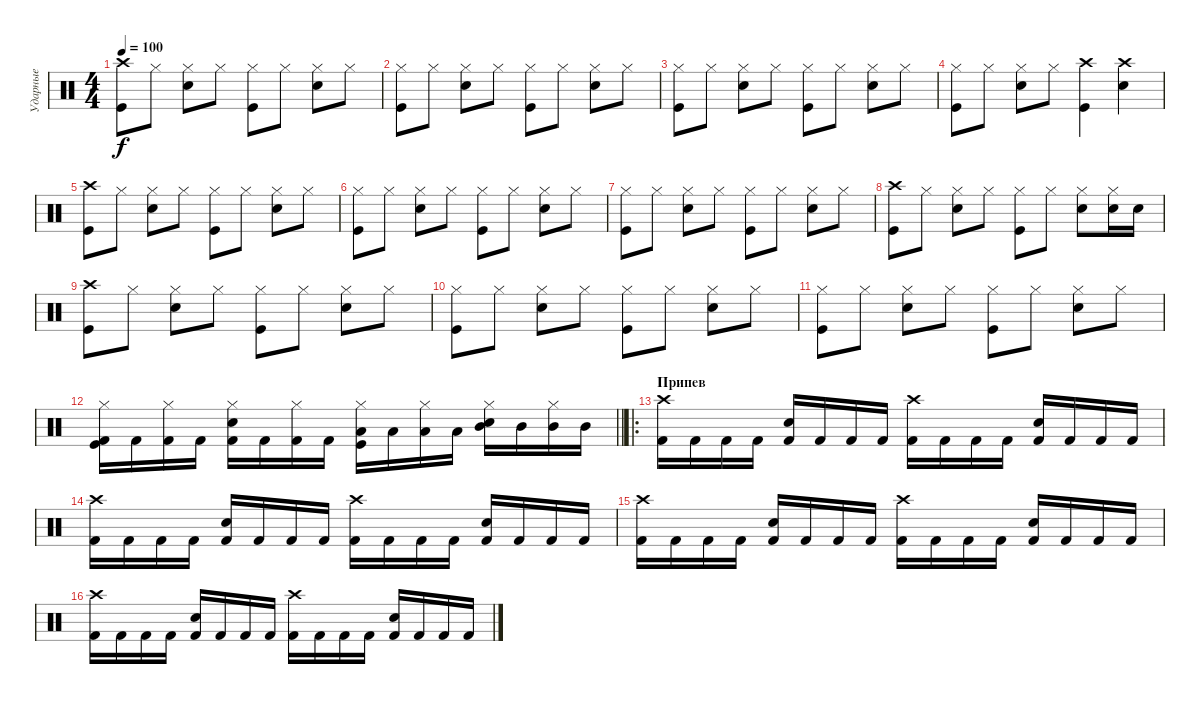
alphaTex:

\track ("Ударные" "Ударные") {instrument percussion}
\staff {score}
\articulation defaults
\ts (4 4)
\tempo 100
\clef neutral
\ks c
("Kick (hit)" "Crash high (hit)").8{dy f} "Hi-Hat (closed)".8 ("Snare (hit) 2" "Hi-Hat (closed)").8 "Hi-Hat (closed)".8 ("Kick (hit)" "Hi-Hat (closed)").8 "Hi-Hat (closed)".8 ("Snare (hit) 2" "Hi-Hat (closed)").8 "Hi-Hat (closed)".8 |
("Kick (hit)" "Hi-Hat (closed)").8 "Hi-Hat (closed)".8 ("Snare (hit) 2" "Hi-Hat (closed)").8 "Hi-Hat (closed)".8 ("Kick (hit)" "Hi-Hat (closed)").8 "Hi-Hat (closed)".8 ("Snare (hit) 2" "Hi-Hat (closed)").8 "Hi-Hat (closed)".8 |
("Kick (hit)" "Hi-Hat (closed)").8 "Hi-Hat (closed)".8 ("Snare (hit) 2" "Hi-Hat (closed)").8 "Hi-Hat (closed)".8 ("Kick (hit)" "Hi-Hat (closed)").8 "Hi-Hat (closed)".8 ("Snare (hit) 2" "Hi-Hat (closed)").8 "Hi-Hat (closed)".8 |
("Kick (hit)" "Hi-Hat (closed)").8 "Hi-Hat (closed)".8 ("Snare (hit) 2" "Hi-Hat (closed)").8 "Hi-Hat (closed)".8 ("Kick (hit)" "Crash high (hit)").4 ("Snare (hit) 2" "Crash high (hit)").4 |
("Kick (hit)" "Crash high (hit)").8 "Hi-Hat (closed)".8 ("Snare (hit) 2" "Hi-Hat (closed)").8 "Hi-Hat (closed)".8 ("Kick (hit)" "Hi-Hat (closed)").8 "Hi-Hat (closed)".8 ("Snare (hit) 2" "Hi-Hat (closed)").8 "Hi-Hat (closed)".8 |
("Kick (hit)" "Hi-Hat (closed)").8 "Hi-Hat (closed)".8 ("Snare (hit) 2" "Hi-Hat (closed)").8 "Hi-Hat (closed)".8 ("Kick (hit)" "Hi-Hat (closed)").8 "Hi-Hat (closed)".8 ("Snare (hit) 2" "Hi-Hat (closed)").8 "Hi-Hat (closed)".8 |
("Kick (hit)" "Hi-Hat (closed)").8 "Hi-Hat (closed)".8 ("Snare (hit) 2" "Hi-Hat (closed)").8 "Hi-Hat (closed)".8 ("Kick (hit)" "Hi-Hat (closed)").8 "Hi-Hat (closed)".8 ("Snare (hit) 2" "Hi-Hat (closed)").8 "Hi-Hat (closed)".8 |
("Kick (hit)" "Crash high (hit)").8 "Hi-Hat (closed)".8 ("Snare (hit) 2" "Hi-Hat (closed)").8 "Hi-Hat (closed)".8 ("Kick (hit)" "Hi-Hat (closed)").8 "Hi-Hat (closed)".8 ("Snare (hit) 2" "Hi-Hat (closed)").8 ("Snare (hit) 2" "Hi-Hat (closed)").16 "Snare (hit) 2".16 |
("Kick (hit)" "Crash high (hit)").8 "Hi-Hat (closed)".8 ("Snare (hit) 2" "Hi-Hat (closed)").8 "Hi-Hat (closed)".8 ("Kick (hit)" "Hi-Hat (closed)").8 "Hi-Hat (closed)".8 ("Snare (hit) 2" "Hi-Hat (closed)").8 "Hi-Hat (closed)".8 |
("Kick (hit)" "Hi-Hat (closed)").8 "Hi-Hat (closed)".8 ("Snare (hit) 2" "Hi-Hat (closed)").8 "Hi-Hat (closed)".8 ("Kick (hit)" "Hi-Hat (closed)").8 "Hi-Hat (closed)".8 ("Snare (hit) 2" "Hi-Hat (closed)").8 "Hi-Hat (closed)".8 |
("Kick (hit)" "Hi-Hat (closed)").8 "Hi-Hat (closed)".8 ("Snare (hit) 2" "Hi-Hat (closed)").8 "Hi-Hat (closed)".8 ("Kick (hit)" "Hi-Hat (closed)").8 "Hi-Hat (closed)".8 ("Snare (hit) 2" "Hi-Hat (closed)").8 "Hi-Hat (closed)".8 |
\barLineRight lightlight
("Kick (hit)" "Kick (hit) 2" "Hi-Hat (closed)").16 "Kick (hit) 2".16 ("Kick (hit) 2" "Hi-Hat (closed)").16 "Kick (hit) 2".16 ("Snare (hit) 2" "Kick (hit) 2" "Hi-Hat (closed)").16 "Kick (hit) 2".16 ("Kick (hit) 2" "Hi-Hat (closed)").16 "Kick (hit) 2".16 ("Kick (hit)" "Low Tom (hit)" "Hi-Hat (closed)").16 "Low Tom (hit)".16 ("Low Tom (hit)" "Hi-Hat (closed)").16 "Low Tom (hit)".16 ("Snare (hit) 2" "Mid Tom (hit)" "Hi-Hat (closed)").16 "Mid Tom (hit)".16 ("Mid Tom (hit)" "Hi-Hat (closed)").16 "Mid Tom (hit)".16 |
\ro
\section ("" "Припев")
("Kick (hit) 2" "Crash high (hit)").16 "Kick (hit) 2".16 "Kick (hit) 2".16 "Kick (hit) 2".16 ("Kick (hit) 2" "Snare (hit) 2").16 "Kick (hit) 2".16 "Kick (hit) 2".16 "Kick (hit) 2".16 ("Kick (hit) 2" "Crash high (hit)").16 "Kick (hit) 2".16 "Kick (hit) 2".16 "Kick (hit) 2".16 ("Kick (hit) 2" "Snare (hit) 2").16 "Kick (hit) 2".16 "Kick (hit) 2".16 "Kick (hit) 2".16 |
("Kick (hit) 2" "Crash high (hit)").16 "Kick (hit) 2".16 "Kick (hit) 2".16 "Kick (hit) 2".16 ("Kick (hit) 2" "Snare (hit) 2").16 "Kick (hit) 2".16 "Kick (hit) 2".16 "Kick (hit) 2".16 ("Kick (hit) 2" "Crash high (hit)").16 "Kick (hit) 2".16 "Kick (hit) 2".16 "Kick (hit) 2".16 ("Kick (hit) 2" "Snare (hit) 2").16 "Kick (hit) 2".16 "Kick (hit) 2".16 "Kick (hit) 2".16 |
("Kick (hit) 2" "Crash high (hit)").16 "Kick (hit) 2".16 "Kick (hit) 2".16 "Kick (hit) 2".16 ("Kick (hit) 2" "Snare (hit) 2").16 "Kick (hit) 2".16 "Kick (hit) 2".16 "Kick (hit) 2".16 ("Kick (hit) 2" "Crash high (hit)").16 "Kick (hit) 2".16 "Kick (hit) 2".16 "Kick (hit) 2".16 ("Kick (hit) 2" "Snare (hit) 2").16 "Kick (hit) 2".16 "Kick (hit) 2".16 "Kick (hit) 2".16 |
("Kick (hit) 2" "Crash high (hit)").16 "Kick (hit) 2".16 "Kick (hit) 2".16 "Kick (hit) 2".16 ("Kick (hit) 2" "Snare (hit) 2").16 "Kick (hit) 2".16 "Kick (hit) 2".16 "Kick (hit) 2".16 ("Kick (hit) 2" "Crash high (hit)").16 "Kick (hit) 2".16 "Kick (hit) 2".16 "Kick (hit) 2".16 ("Kick (hit) 2" "Snare (hit) 2").16 "Kick (hit) 2".16 "Kick (hit) 2".16 "Kick (hit) 2".16
